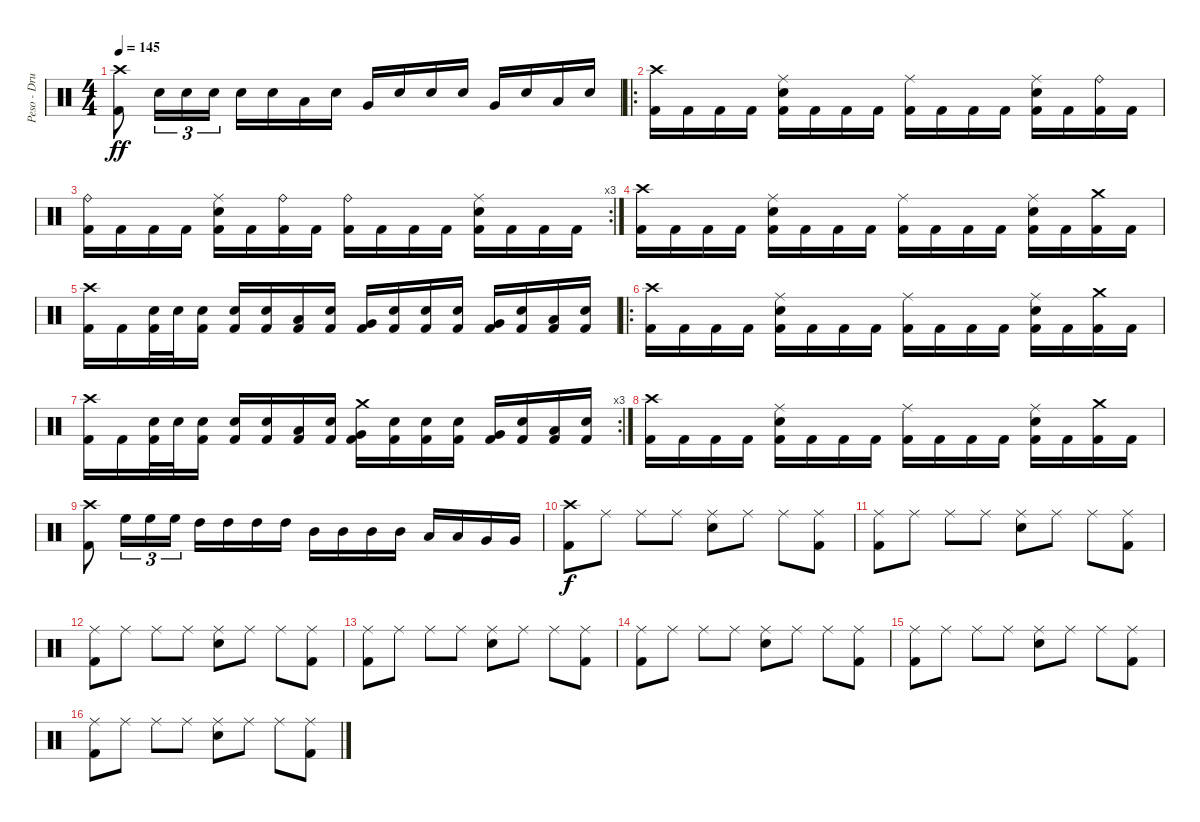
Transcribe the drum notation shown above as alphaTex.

\track ("Peso - Drums" "Peso - Dru") {instrument percussion}
\staff {score}
\articulation defaults
\ts (4 4)
\tempo 145
\clef neutral
\ks c
("Crash high (hit)" "Kick (hit) 2").8{dy ff} "Electric Snare (hit)".16{tu (3 2)} "Electric Snare (hit)".16{tu (3 2)} "Electric Snare (hit)".16{tu (3 2)} "Electric Snare (hit)".16 "Electric Snare (hit)".16 "Low Tom (hit)".16 "Electric Snare (hit)".16 "Very Low Tom (hit)".16 "Electric Snare (hit)".16 "Electric Snare (hit)".16 "Electric Snare (hit)".16 "Very Low Tom (hit)".16 "Electric Snare (hit)".16 "Low Floor Tom (hit)".16 "Electric Snare (hit)".16 |
\ro
("Crash high (hit)" "Kick (hit) 2").16 "Kick (hit) 2".16 "Kick (hit) 2".16 "Kick (hit) 2".16 ("Ride (middle)" "Electric Snare (hit)" "Kick (hit) 2").16 "Kick (hit) 2".16 "Kick (hit) 2".16 "Kick (hit) 2".16 ("Ride (middle)" "Kick (hit) 2").16 "Kick (hit) 2".16 "Kick (hit) 2".16 "Kick (hit) 2".16 ("Ride (middle)" "Electric Snare (hit)" "Kick (hit) 2").16 "Kick (hit) 2".16 ("Ride (bell)" "Kick (hit) 2").16 "Kick (hit) 2".16 |
\rc 3
("Ride (bell)" "Kick (hit) 2").16 "Kick (hit) 2".16 "Kick (hit) 2".16 "Kick (hit) 2".16 ("Ride (middle)" "Electric Snare (hit)" "Kick (hit) 2").16 "Kick (hit) 2".16 ("Ride (bell)" "Kick (hit) 2").16 "Kick (hit) 2".16 ("Ride (bell)" "Kick (hit) 2").16 "Kick (hit) 2".16 "Kick (hit) 2".16 "Kick (hit) 2".16 ("Ride (middle)" "Electric Snare (hit)" "Kick (hit) 2").16 "Kick (hit) 2".16 "Kick (hit) 2".16 "Kick (hit) 2".16 |
("Crash high (hit)" "Kick (hit) 2").16 "Kick (hit) 2".16 "Kick (hit) 2".16 "Kick (hit) 2".16 ("Ride (middle)" "Electric Snare (hit)" "Kick (hit) 2").16 "Kick (hit) 2".16 "Kick (hit) 2".16 "Kick (hit) 2".16 ("Ride (middle)" "Kick (hit) 2").16 "Kick (hit) 2".16 "Kick (hit) 2".16 "Kick (hit) 2".16 ("Ride (middle)" "Electric Snare (hit)" "Kick (hit) 2").16 "Kick (hit) 2".16 ("Crash medium (hit)" "Kick (hit) 2").16 "Kick (hit) 2".16 |
("Crash high (hit)" "Kick (hit) 2").16 "Kick (hit) 2".16 ("Electric Snare (hit)" "Kick (hit) 2").32 "Electric Snare (hit)".32 ("Electric Snare (hit)" "Kick (hit) 2").16 ("Electric Snare (hit)" "Kick (hit) 2").16 ("Electric Snare (hit)" "Kick (hit) 2").16 ("Low Tom (hit)" "Kick (hit) 2").16 ("Electric Snare (hit)" "Kick (hit) 2").16 ("Very Low Tom (hit)" "Kick (hit) 2").16 ("Electric Snare (hit)" "Kick (hit) 2").16 ("Electric Snare (hit)" "Kick (hit) 2").16 ("Electric Snare (hit)" "Kick (hit) 2").16 ("Very Low Tom (hit)" "Kick (hit) 2").16 ("Electric Snare (hit)" "Kick (hit) 2").16 ("Low Floor Tom (hit)" "Kick (hit) 2").16 ("Electric Snare (hit)" "Kick (hit) 2").16 |
\ro
("Crash high (hit)" "Kick (hit) 2").16 "Kick (hit) 2".16 "Kick (hit) 2".16 "Kick (hit) 2".16 ("Ride (middle)" "Electric Snare (hit)" "Kick (hit) 2").16 "Kick (hit) 2".16 "Kick (hit) 2".16 "Kick (hit) 2".16 ("Ride (middle)" "Kick (hit) 2").16 "Kick (hit) 2".16 "Kick (hit) 2".16 "Kick (hit) 2".16 ("Ride (middle)" "Electric Snare (hit)" "Kick (hit) 2").16 "Kick (hit) 2".16 ("Crash medium (hit)" "Kick (hit) 2").16 "Kick (hit) 2".16 |
\rc 3
("Crash high (hit)" "Kick (hit) 2").16 "Kick (hit) 2".16 ("Electric Snare (hit)" "Kick (hit) 2").32 "Electric Snare (hit)".32 ("Electric Snare (hit)" "Kick (hit) 2").16 ("Electric Snare (hit)" "Kick (hit) 2").16 ("Electric Snare (hit)" "Kick (hit) 2").16 ("Low Tom (hit)" "Kick (hit) 2").16 ("Electric Snare (hit)" "Kick (hit) 2").16 ("Crash medium (hit)" "Very Low Tom (hit)" "Kick (hit) 2").16 ("Electric Snare (hit)" "Kick (hit) 2").16 ("Electric Snare (hit)" "Kick (hit) 2").16 ("Electric Snare (hit)" "Kick (hit) 2").16 ("Very Low Tom (hit)" "Kick (hit) 2").16 ("Electric Snare (hit)" "Kick (hit) 2").16 ("Low Floor Tom (hit)" "Kick (hit) 2").16 ("Electric Snare (hit)" "Kick (hit) 2").16 |
("Crash high (hit)" "Kick (hit) 2").16 "Kick (hit) 2".16 "Kick (hit) 2".16 "Kick (hit) 2".16 ("Ride (middle)" "Electric Snare (hit)" "Kick (hit) 2").16 "Kick (hit) 2".16 "Kick (hit) 2".16 "Kick (hit) 2".16 ("Ride (middle)" "Kick (hit) 2").16 "Kick (hit) 2".16 "Kick (hit) 2".16 "Kick (hit) 2".16 ("Ride (middle)" "Electric Snare (hit)" "Kick (hit) 2").16 "Kick (hit) 2".16 ("Crash medium (hit)" "Kick (hit) 2").16 "Kick (hit) 2".16 |
("Crash high (hit)" "Kick (hit) 2").8 "High Floor Tom (hit)".16{tu (3 2)} "High Floor Tom (hit)".16{tu (3 2)} "High Floor Tom (hit)".16{tu (3 2)} "High Tom (hit)".16 "High Tom (hit)".16 "High Tom (hit)".16 "High Tom (hit)".16 "Mid Tom (hit)".16 "Mid Tom (hit)".16 "Mid Tom (hit)".16 "Mid Tom (hit)".16 "Low Tom (hit)".16 "Low Tom (hit)".16 "Very Low Tom (hit)".16 "Very Low Tom (hit)".16 |
("Crash high (hit)" "Kick (hit) 2").8{dy f} "Ride (middle)".8 "Ride (middle)".8 "Ride (middle)".8 ("Ride (middle)" "Electric Snare (hit)").8 "Ride (middle)".8 "Ride (middle)".8 ("Ride (middle)" "Kick (hit) 2").8 |
("Ride (middle)" "Kick (hit) 2").8 "Ride (middle)".8 "Ride (middle)".8 "Ride (middle)".8 ("Ride (middle)" "Electric Snare (hit)").8 "Ride (middle)".8 "Ride (middle)".8 ("Ride (middle)" "Kick (hit) 2").8 |
("Ride (middle)" "Kick (hit) 2").8 "Ride (middle)".8 "Ride (middle)".8 "Ride (middle)".8 ("Ride (middle)" "Electric Snare (hit)").8 "Ride (middle)".8 "Ride (middle)".8 ("Ride (middle)" "Kick (hit) 2").8 |
("Ride (middle)" "Kick (hit) 2").8 "Ride (middle)".8 "Ride (middle)".8 "Ride (middle)".8 ("Ride (middle)" "Electric Snare (hit)").8 "Ride (middle)".8 "Ride (middle)".8 ("Ride (middle)" "Kick (hit) 2").8 |
("Ride (middle)" "Kick (hit) 2").8 "Ride (middle)".8 "Ride (middle)".8 "Ride (middle)".8 ("Ride (middle)" "Electric Snare (hit)").8 "Ride (middle)".8 "Ride (middle)".8 ("Ride (middle)" "Kick (hit) 2").8 |
("Ride (middle)" "Kick (hit) 2").8 "Ride (middle)".8 "Ride (middle)".8 "Ride (middle)".8 ("Ride (middle)" "Electric Snare (hit)").8 "Ride (middle)".8 "Ride (middle)".8 ("Ride (middle)" "Kick (hit) 2").8 |
("Ride (middle)" "Kick (hit) 2").8 "Ride (middle)".8 "Ride (middle)".8 "Ride (middle)".8 ("Ride (middle)" "Electric Snare (hit)").8 "Ride (middle)".8 "Ride (middle)".8 ("Ride (middle)" "Kick (hit) 2").8
